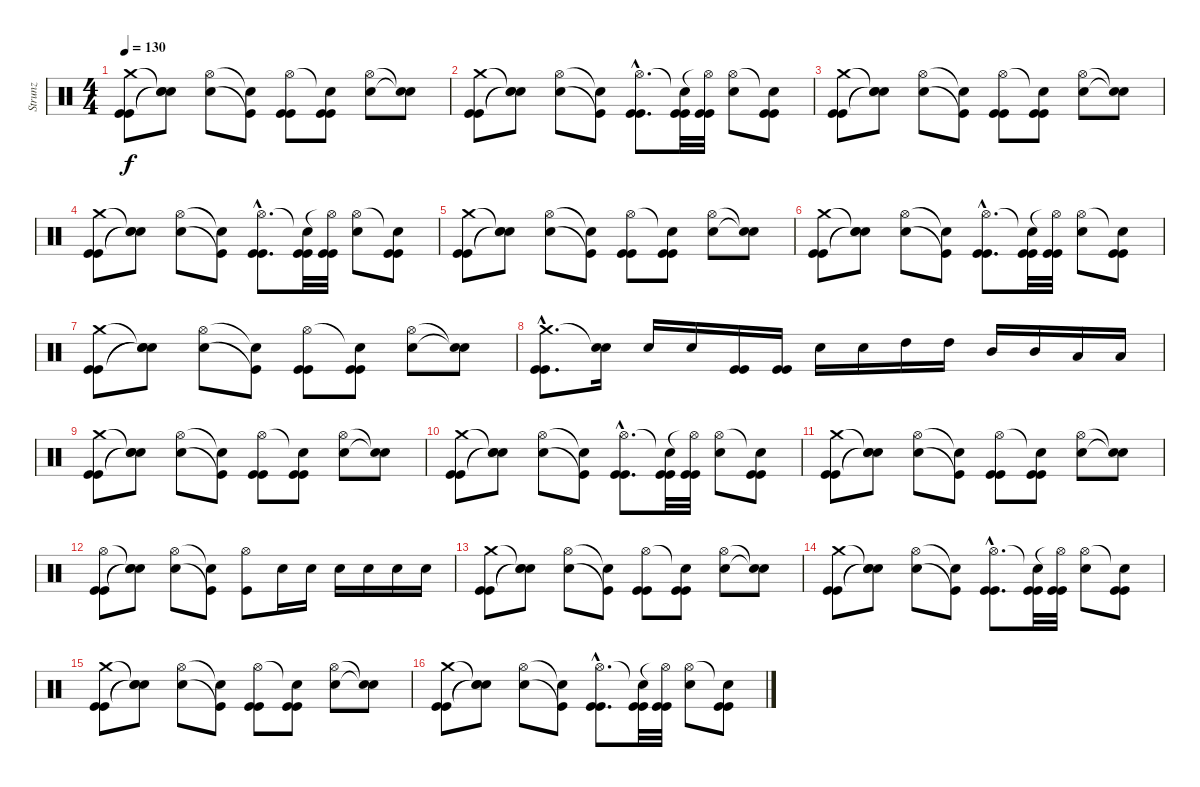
\track ("Strunz" "Strunz") {instrument percussion}
\staff {score}
\articulation defaults
\ts (4 4)
\tempo 130
\clef neutral
\ks c
("Crash medium (hit)" "Kick (hit)" "Kick (hit)").8{dy f} ("Snare (hit)"{t} "Electric Snare (hit)"{t} "Snare (hit)"{t}).8 ("Hi-Hat (open)" "Electric Snare (hit)").8 ("Snare (hit)"{t} "Kick (hit)"{t}).8 ("Hi-Hat (open)" "Kick (hit)" "Kick (hit)").8 ("Snare (hit)"{t} "Kick (hit)" "Kick (hit)").8 ("Hi-Hat (open)" "Electric Snare (hit)").8 ("Snare (hit)"{t} "Snare (hit)"{t}).8 |
("Crash medium (hit)" "Kick (hit)" "Kick (hit)").8 ("Snare (hit)"{t} "Electric Snare (hit)"{t} "Snare (hit)"{t}).8 ("Hi-Hat (open)" "Electric Snare (hit)").8 ("Snare (hit)"{t} "Kick (hit)"{t}).8 ("Hi-Hat (open)"{hac} "Kick (hit)"{hac} "Kick (hit)"{hac}).8{d} ("Snare (hit)"{t} "Kick (hit)" "Kick (hit)").32 ("Hi-Hat (open)"{t} "Kick (hit)" "Kick (hit)").32 ("Hi-Hat (open)" "Electric Snare (hit)").8 ("Snare (hit)"{t} "Kick (hit)" "Kick (hit)").8 |
("Crash medium (hit)" "Kick (hit)" "Kick (hit)").8 ("Snare (hit)"{t} "Electric Snare (hit)"{t} "Snare (hit)"{t}).8 ("Hi-Hat (open)" "Electric Snare (hit)").8 ("Snare (hit)"{t} "Kick (hit)"{t}).8 ("Hi-Hat (open)" "Kick (hit)" "Kick (hit)").8 ("Snare (hit)"{t} "Kick (hit)" "Kick (hit)").8 ("Hi-Hat (open)" "Electric Snare (hit)").8 ("Snare (hit)"{t} "Snare (hit)"{t}).8 |
("Crash medium (hit)" "Kick (hit)" "Kick (hit)").8 ("Snare (hit)"{t} "Electric Snare (hit)"{t} "Snare (hit)"{t}).8 ("Hi-Hat (open)" "Electric Snare (hit)").8 ("Snare (hit)"{t} "Kick (hit)"{t}).8 ("Hi-Hat (open)"{hac} "Kick (hit)"{hac} "Kick (hit)"{hac}).8{d} ("Snare (hit)"{t} "Kick (hit)" "Kick (hit)").32 ("Hi-Hat (open)"{t} "Kick (hit)" "Kick (hit)").32 ("Hi-Hat (open)" "Electric Snare (hit)").8 ("Snare (hit)"{t} "Kick (hit)" "Kick (hit)").8 |
("Crash medium (hit)" "Kick (hit)" "Kick (hit)").8 ("Snare (hit)"{t} "Electric Snare (hit)"{t} "Snare (hit)"{t}).8 ("Hi-Hat (open)" "Electric Snare (hit)").8 ("Snare (hit)"{t} "Kick (hit)"{t}).8 ("Hi-Hat (open)" "Kick (hit)" "Kick (hit)").8 ("Snare (hit)"{t} "Kick (hit)" "Kick (hit)").8 ("Hi-Hat (open)" "Electric Snare (hit)").8 ("Snare (hit)"{t} "Snare (hit)"{t}).8 |
("Crash medium (hit)" "Kick (hit)" "Kick (hit)").8 ("Snare (hit)"{t} "Electric Snare (hit)"{t} "Snare (hit)"{t}).8 ("Hi-Hat (open)" "Electric Snare (hit)").8 ("Snare (hit)"{t} "Kick (hit)"{t}).8 ("Hi-Hat (open)"{hac} "Kick (hit)"{hac} "Kick (hit)"{hac}).8{d} ("Snare (hit)"{t} "Kick (hit)" "Kick (hit)").32 ("Hi-Hat (open)"{t} "Kick (hit)" "Kick (hit)").32 ("Hi-Hat (open)" "Electric Snare (hit)").8 ("Snare (hit)"{t} "Kick (hit)" "Kick (hit)").8 |
("Crash medium (hit)" "Kick (hit)" "Kick (hit)").8 ("Snare (hit)"{t} "Electric Snare (hit)"{t} "Snare (hit)"{t}).8 ("Hi-Hat (open)" "Electric Snare (hit)").8 ("Snare (hit)"{t} "Kick (hit)"{t}).8 ("Hi-Hat (open)" "Kick (hit)" "Kick (hit)").8 ("Snare (hit)"{t} "Kick (hit)" "Kick (hit)").8 ("Hi-Hat (open)" "Electric Snare (hit)").8 ("Snare (hit)"{t} "Snare (hit)"{t}).8 |
("Crash medium (hit)"{hac} "Kick (hit)"{hac} "Kick (hit)"{hac}).8{d} ("Snare (hit)"{t} "Electric Snare (hit)").16 "Electric Snare (hit)".16 "Electric Snare (hit)".16 ("Kick (hit)" "Kick (hit)").16 ("Kick (hit)" "Kick (hit)").16 "Electric Snare (hit)".16 "Electric Snare (hit)".16 "High Tom (hit)".16 "High Tom (hit)".16 "Mid Tom (hit)".16 "Mid Tom (hit)".16 "Low Tom (hit)".16 "Low Tom (hit)".16 |
("Crash medium (hit)" "Kick (hit)" "Kick (hit)").8 ("Snare (hit)"{t} "Electric Snare (hit)"{t} "Snare (hit)"{t}).8 ("Hi-Hat (open)" "Electric Snare (hit)").8 ("Snare (hit)"{t} "Kick (hit)"{t}).8 ("Hi-Hat (open)" "Kick (hit)" "Kick (hit)").8 ("Snare (hit)"{t} "Kick (hit)" "Kick (hit)").8 ("Hi-Hat (open)" "Electric Snare (hit)").8 ("Snare (hit)"{t} "Snare (hit)"{t}).8 |
("Crash medium (hit)" "Kick (hit)" "Kick (hit)").8 ("Snare (hit)"{t} "Electric Snare (hit)"{t} "Snare (hit)"{t}).8 ("Hi-Hat (open)" "Electric Snare (hit)").8 ("Snare (hit)"{t} "Kick (hit)"{t}).8 ("Hi-Hat (open)"{hac} "Kick (hit)"{hac} "Kick (hit)"{hac}).8{d} ("Snare (hit)"{t} "Kick (hit)" "Kick (hit)").32 ("Hi-Hat (open)"{t} "Kick (hit)" "Kick (hit)").32 ("Hi-Hat (open)" "Electric Snare (hit)").8 ("Snare (hit)"{t} "Kick (hit)" "Kick (hit)").8 |
("Crash medium (hit)" "Kick (hit)" "Kick (hit)").8 ("Snare (hit)"{t} "Electric Snare (hit)"{t} "Snare (hit)"{t}).8 ("Hi-Hat (open)" "Electric Snare (hit)").8 ("Snare (hit)"{t} "Kick (hit)"{t}).8 ("Hi-Hat (open)" "Kick (hit)" "Kick (hit)").8 ("Snare (hit)"{t} "Kick (hit)" "Kick (hit)").8 ("Hi-Hat (open)" "Electric Snare (hit)").8 ("Snare (hit)"{t} "Snare (hit)"{t}).8 |
("Hi-Hat (open)" "Kick (hit)" "Kick (hit)").8 ("Snare (hit)"{t} "Snare (hit)"{t} "Snare (hit)"{t}).8 ("Hi-Hat (open)" "Electric Snare (hit)").8 ("Snare (hit)"{t} "Kick (hit)"{t}).8 ("Hi-Hat (open)" "Kick (hit)").8 "Electric Snare (hit)".16 "Electric Snare (hit)".16 "Electric Snare (hit)".16 "Electric Snare (hit)".16 "Electric Snare (hit)".16 "Electric Snare (hit)".16 |
("Crash medium (hit)" "Kick (hit)" "Kick (hit)").8 ("Snare (hit)"{t} "Electric Snare (hit)"{t} "Snare (hit)"{t}).8 ("Hi-Hat (open)" "Electric Snare (hit)").8 ("Snare (hit)"{t} "Kick (hit)"{t}).8 ("Hi-Hat (open)" "Kick (hit)" "Kick (hit)").8 ("Snare (hit)"{t} "Kick (hit)" "Kick (hit)").8 ("Hi-Hat (open)" "Electric Snare (hit)").8 ("Snare (hit)"{t} "Snare (hit)"{t}).8 |
("Crash medium (hit)" "Kick (hit)" "Kick (hit)").8 ("Snare (hit)"{t} "Electric Snare (hit)"{t} "Snare (hit)"{t}).8 ("Hi-Hat (open)" "Electric Snare (hit)").8 ("Snare (hit)"{t} "Kick (hit)"{t}).8 ("Hi-Hat (open)"{hac} "Kick (hit)"{hac} "Kick (hit)"{hac}).8{d} ("Snare (hit)"{t} "Kick (hit)" "Kick (hit)").32 ("Hi-Hat (open)"{t} "Kick (hit)" "Kick (hit)").32 ("Hi-Hat (open)" "Electric Snare (hit)").8 ("Snare (hit)"{t} "Kick (hit)" "Kick (hit)").8 |
("Crash medium (hit)" "Kick (hit)" "Kick (hit)").8 ("Snare (hit)"{t} "Electric Snare (hit)"{t} "Snare (hit)"{t}).8 ("Hi-Hat (open)" "Electric Snare (hit)").8 ("Snare (hit)"{t} "Kick (hit)"{t}).8 ("Hi-Hat (open)" "Kick (hit)" "Kick (hit)").8 ("Snare (hit)"{t} "Kick (hit)" "Kick (hit)").8 ("Hi-Hat (open)" "Electric Snare (hit)").8 ("Snare (hit)"{t} "Snare (hit)"{t}).8 |
("Crash medium (hit)" "Kick (hit)" "Kick (hit)").8 ("Snare (hit)"{t} "Electric Snare (hit)"{t} "Snare (hit)"{t}).8 ("Hi-Hat (open)" "Electric Snare (hit)").8 ("Snare (hit)"{t} "Kick (hit)"{t}).8 ("Hi-Hat (open)"{hac} "Kick (hit)"{hac} "Kick (hit)"{hac}).8{d} ("Snare (hit)"{t} "Kick (hit)" "Kick (hit)").32 ("Hi-Hat (open)"{t} "Kick (hit)" "Kick (hit)").32 ("Hi-Hat (open)" "Electric Snare (hit)").8 ("Snare (hit)"{t} "Kick (hit)" "Kick (hit)").8
